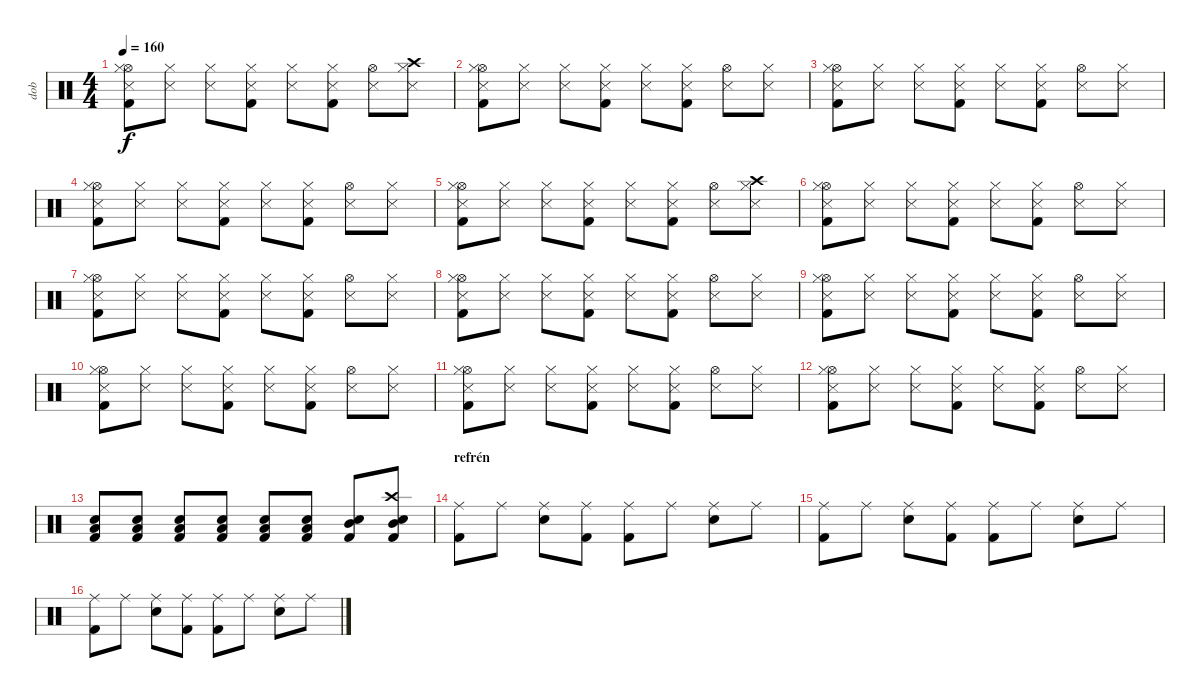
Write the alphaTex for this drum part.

\track ("dob" "dob") {instrument percussion}
\staff {score}
\articulation defaults
\ts (4 4)
\tempo 160
\clef neutral
\ks c
("Hi-Hat (open)" "Hi-Hat (closed)" "Snare (side stick) 3" "Kick (hit) 2").8{dy f} ("Hi-Hat (closed)" "Snare (side stick) 3").8 ("Hi-Hat (closed)" "Snare (side stick) 3").8 ("Hi-Hat (closed)" "Snare (side stick) 3" "Kick (hit) 2").8 ("Hi-Hat (closed)" "Snare (side stick) 3").8 ("Hi-Hat (closed)" "Snare (side stick) 3" "Kick (hit) 2").8 ("Hi-Hat (open)" "Snare (side stick) 3").8 ("Crash high (hit)" "Hi-Hat (closed)" "Snare (side stick) 3").8 |
("Hi-Hat (open)" "Hi-Hat (closed)" "Snare (side stick) 3" "Kick (hit) 2").8 ("Hi-Hat (closed)" "Snare (side stick) 3").8 ("Hi-Hat (closed)" "Snare (side stick) 3").8 ("Hi-Hat (closed)" "Snare (side stick) 3" "Kick (hit) 2").8 ("Hi-Hat (closed)" "Snare (side stick) 3").8 ("Hi-Hat (closed)" "Snare (side stick) 3" "Kick (hit) 2").8 ("Hi-Hat (open)" "Snare (side stick) 3").8 ("Hi-Hat (closed)" "Snare (side stick) 3").8 |
("Hi-Hat (open)" "Hi-Hat (closed)" "Snare (side stick) 3" "Kick (hit) 2").8 ("Hi-Hat (closed)" "Snare (side stick) 3").8 ("Hi-Hat (closed)" "Snare (side stick) 3").8 ("Hi-Hat (closed)" "Snare (side stick) 3" "Kick (hit) 2").8 ("Hi-Hat (closed)" "Snare (side stick) 3").8 ("Hi-Hat (closed)" "Snare (side stick) 3" "Kick (hit) 2").8 ("Hi-Hat (open)" "Snare (side stick) 3").8 ("Hi-Hat (closed)" "Snare (side stick) 3").8 |
("Hi-Hat (open)" "Hi-Hat (closed)" "Snare (side stick) 3" "Kick (hit) 2").8 ("Hi-Hat (closed)" "Snare (side stick) 3").8 ("Hi-Hat (closed)" "Snare (side stick) 3").8 ("Hi-Hat (closed)" "Snare (side stick) 3" "Kick (hit) 2").8 ("Hi-Hat (closed)" "Snare (side stick) 3").8 ("Hi-Hat (closed)" "Snare (side stick) 3" "Kick (hit) 2").8 ("Hi-Hat (open)" "Snare (side stick) 3").8 ("Hi-Hat (closed)" "Snare (side stick) 3").8 |
("Hi-Hat (open)" "Hi-Hat (closed)" "Snare (side stick) 3" "Kick (hit) 2").8 ("Hi-Hat (closed)" "Snare (side stick) 3").8 ("Hi-Hat (closed)" "Snare (side stick) 3").8 ("Hi-Hat (closed)" "Snare (side stick) 3" "Kick (hit) 2").8 ("Hi-Hat (closed)" "Snare (side stick) 3").8 ("Hi-Hat (closed)" "Snare (side stick) 3" "Kick (hit) 2").8 ("Hi-Hat (open)" "Snare (side stick) 3").8 ("Crash high (hit)" "Hi-Hat (closed)" "Snare (side stick) 3").8 |
("Hi-Hat (open)" "Hi-Hat (closed)" "Snare (side stick) 3" "Kick (hit) 2").8 ("Hi-Hat (closed)" "Snare (side stick) 3").8 ("Hi-Hat (closed)" "Snare (side stick) 3").8 ("Hi-Hat (closed)" "Snare (side stick) 3" "Kick (hit) 2").8 ("Hi-Hat (closed)" "Snare (side stick) 3").8 ("Hi-Hat (closed)" "Snare (side stick) 3" "Kick (hit) 2").8 ("Hi-Hat (open)" "Snare (side stick) 3").8 ("Hi-Hat (closed)" "Snare (side stick) 3").8 |
("Hi-Hat (open)" "Hi-Hat (closed)" "Snare (side stick) 3" "Kick (hit) 2").8 ("Hi-Hat (closed)" "Snare (side stick) 3").8 ("Hi-Hat (closed)" "Snare (side stick) 3").8 ("Hi-Hat (closed)" "Snare (side stick) 3" "Kick (hit) 2").8 ("Hi-Hat (closed)" "Snare (side stick) 3").8 ("Hi-Hat (closed)" "Snare (side stick) 3" "Kick (hit) 2").8 ("Hi-Hat (open)" "Snare (side stick) 3").8 ("Hi-Hat (closed)" "Snare (side stick) 3").8 |
("Hi-Hat (open)" "Hi-Hat (closed)" "Snare (side stick) 3" "Kick (hit) 2").8 ("Hi-Hat (closed)" "Snare (side stick) 3").8 ("Hi-Hat (closed)" "Snare (side stick) 3").8 ("Hi-Hat (closed)" "Snare (side stick) 3" "Kick (hit) 2").8 ("Hi-Hat (closed)" "Snare (side stick) 3").8 ("Hi-Hat (closed)" "Snare (side stick) 3" "Kick (hit) 2").8 ("Hi-Hat (open)" "Snare (side stick) 3").8 ("Hi-Hat (closed)" "Snare (side stick) 3").8 |
("Hi-Hat (open)" "Hi-Hat (closed)" "Snare (side stick) 3" "Kick (hit) 2").8 ("Hi-Hat (closed)" "Snare (side stick) 3").8 ("Hi-Hat (closed)" "Snare (side stick) 3").8 ("Hi-Hat (closed)" "Snare (side stick) 3" "Kick (hit) 2").8 ("Hi-Hat (closed)" "Snare (side stick) 3").8 ("Hi-Hat (closed)" "Snare (side stick) 3" "Kick (hit) 2").8 ("Hi-Hat (open)" "Snare (side stick) 3").8 ("Hi-Hat (closed)" "Snare (side stick) 3").8 |
("Hi-Hat (open)" "Hi-Hat (closed)" "Snare (side stick) 3" "Kick (hit) 2").8 ("Hi-Hat (closed)" "Snare (side stick) 3").8 ("Hi-Hat (closed)" "Snare (side stick) 3").8 ("Hi-Hat (closed)" "Snare (side stick) 3" "Kick (hit) 2").8 ("Hi-Hat (closed)" "Snare (side stick) 3").8 ("Hi-Hat (closed)" "Snare (side stick) 3" "Kick (hit) 2").8 ("Hi-Hat (open)" "Snare (side stick) 3").8 ("Hi-Hat (closed)" "Snare (side stick) 3").8 |
("Hi-Hat (open)" "Hi-Hat (closed)" "Snare (side stick) 3" "Kick (hit) 2").8 ("Hi-Hat (closed)" "Snare (side stick) 3").8 ("Hi-Hat (closed)" "Snare (side stick) 3").8 ("Hi-Hat (closed)" "Snare (side stick) 3" "Kick (hit) 2").8 ("Hi-Hat (closed)" "Snare (side stick) 3").8 ("Hi-Hat (closed)" "Snare (side stick) 3" "Kick (hit) 2").8 ("Hi-Hat (open)" "Snare (side stick) 3").8 ("Hi-Hat (closed)" "Snare (side stick) 3").8 |
("Hi-Hat (open)" "Hi-Hat (closed)" "Snare (side stick) 3" "Kick (hit) 2").8 ("Hi-Hat (closed)" "Snare (side stick) 3").8 ("Hi-Hat (closed)" "Snare (side stick) 3").8 ("Hi-Hat (closed)" "Snare (side stick) 3" "Kick (hit) 2").8 ("Hi-Hat (closed)" "Snare (side stick) 3").8 ("Hi-Hat (closed)" "Snare (side stick) 3" "Kick (hit) 2").8 ("Hi-Hat (open)" "Snare (side stick) 3").8 ("Hi-Hat (closed)" "Snare (side stick) 3").8 |
("Snare (hit) 2" "Low Floor Tom (hit)" "Kick (hit) 2").8 ("Snare (hit) 2" "Low Floor Tom (hit)" "Kick (hit) 2").8 ("Snare (hit) 2" "Low Floor Tom (hit)" "Kick (hit) 2").8 ("Snare (hit) 2" "Low Floor Tom (hit)" "Kick (hit) 2").8 ("Snare (hit) 2" "Low Floor Tom (hit)" "Kick (hit) 2").8 ("Snare (hit) 2" "Low Floor Tom (hit)" "Kick (hit) 2").8 ("Snare (hit) 2" "Kick (hit) 2" "Mid Tom (hit)").8 ("Crash high (hit)" "Snare (hit) 2" "Kick (hit) 2" "Mid Tom (hit)").8 |
\section ("" "refrén")
("Ride (middle)" "Kick (hit) 2").8 "Ride (middle)".8 ("Ride (middle)" "Snare (hit) 2").8 ("Ride (middle)" "Kick (hit) 2").8 ("Ride (middle)" "Kick (hit) 2").8 "Ride (middle)".8 ("Ride (middle)" "Snare (hit) 2").8 "Ride (middle)".8 |
("Ride (middle)" "Kick (hit) 2").8 "Ride (middle)".8 ("Ride (middle)" "Snare (hit) 2").8 ("Ride (middle)" "Kick (hit) 2").8 ("Ride (middle)" "Kick (hit) 2").8 "Ride (middle)".8 ("Ride (middle)" "Snare (hit) 2").8 "Ride (middle)".8 |
("Ride (middle)" "Kick (hit) 2").8 "Ride (middle)".8 ("Ride (middle)" "Snare (hit) 2").8 ("Ride (middle)" "Kick (hit) 2").8 ("Ride (middle)" "Kick (hit) 2").8 "Ride (middle)".8 ("Ride (middle)" "Snare (hit) 2").8 "Ride (middle)".8
